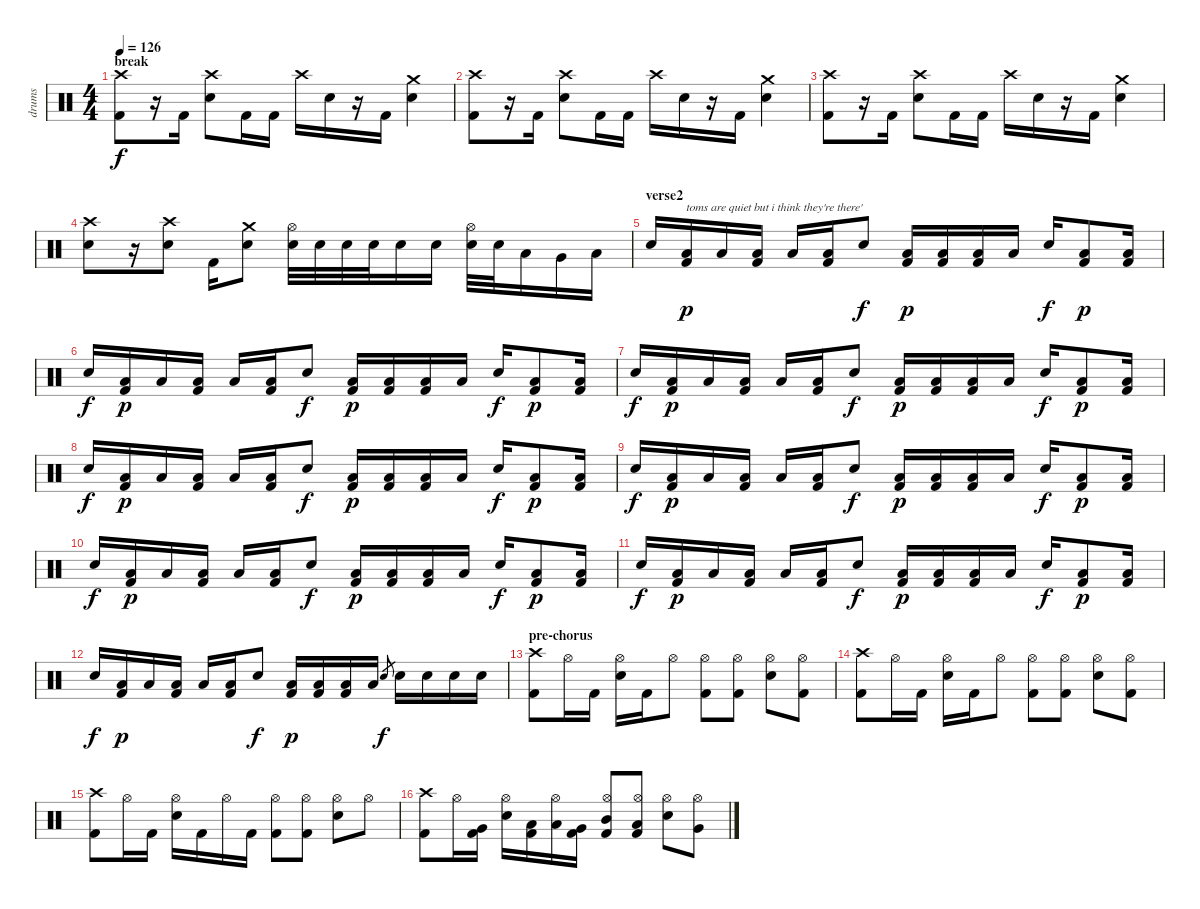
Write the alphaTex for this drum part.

\track ("drums" "drums") {instrument percussion}
\staff {score}
\articulation defaults
\ts (4 4)
\section ("" "break")
\tempo 126
\clef neutral
\ks c
("Crash high (hit)" "Kick (hit) 2").8{dy f} r.16 "Kick (hit) 2".16 ("Crash high (hit)" "Electric Snare (hit)").8 "Kick (hit) 2".16 "Kick (hit) 2".16 "Crash high (hit)".16 "Electric Snare (hit)".16 r.16 "Kick (hit) 2".16 ("Crash medium (hit)" "Electric Snare (hit)").4 |
("Crash high (hit)" "Kick (hit) 2").8 r.16 "Kick (hit) 2".16 ("Crash high (hit)" "Electric Snare (hit)").8 "Kick (hit) 2".16 "Kick (hit) 2".16 "Crash high (hit)".16 "Electric Snare (hit)".16 r.16 "Kick (hit) 2".16 ("Crash medium (hit)" "Electric Snare (hit)").4 |
("Crash high (hit)" "Kick (hit) 2").8 r.16 "Kick (hit) 2".16 ("Crash high (hit)" "Electric Snare (hit)").8 "Kick (hit) 2".16 "Kick (hit) 2".16 "Crash high (hit)".16 "Electric Snare (hit)".16 r.16 "Kick (hit) 2".16 ("Crash medium (hit)" "Electric Snare (hit)").4 |
("Crash high (hit)" "Electric Snare (hit)").8 r.16 ("Crash high (hit)" "Electric Snare (hit)").8 "Kick (hit) 2".16 ("Crash medium (hit)" "Electric Snare (hit)").8 ("Hi-Hat (open)" "Electric Snare (hit)").32 "Electric Snare (hit)".32 "Electric Snare (hit)".32 "Electric Snare (hit)".32 "Electric Snare (hit)".16 "Electric Snare (hit)".16 ("Hi-Hat (open)" "Electric Snare (hit)").32 "Electric Snare (hit)".32 "Low Tom (hit)".16 "Very Low Tom (hit)".16 "Low Floor Tom (hit)".16 |
\section ("" "verse2")
"Electric Snare (hit)".16 ("Low Floor Tom (hit)" "Kick (hit) 2").16{txt "toms are quiet but i think they're there'" dy p} "Low Floor Tom (hit)".16 ("Low Floor Tom (hit)" "Kick (hit) 2").16 "Low Floor Tom (hit)".16 ("Low Floor Tom (hit)" "Kick (hit) 2").16 "Electric Snare (hit)".8{dy f} ("Low Floor Tom (hit)" "Kick (hit) 2").16{dy p} ("Low Floor Tom (hit)" "Kick (hit) 2").16 ("Low Floor Tom (hit)" "Kick (hit) 2").16 "Low Floor Tom (hit)".16 "Electric Snare (hit)".16{dy f} ("Low Floor Tom (hit)" "Kick (hit) 2").8{dy p} ("Low Floor Tom (hit)" "Kick (hit) 2").16 |
"Electric Snare (hit)".16{dy f} ("Low Floor Tom (hit)" "Kick (hit) 2").16{dy p} "Low Floor Tom (hit)".16 ("Low Floor Tom (hit)" "Kick (hit) 2").16 "Low Floor Tom (hit)".16 ("Low Floor Tom (hit)" "Kick (hit) 2").16 "Electric Snare (hit)".8{dy f} ("Low Floor Tom (hit)" "Kick (hit) 2").16{dy p} ("Low Floor Tom (hit)" "Kick (hit) 2").16 ("Low Floor Tom (hit)" "Kick (hit) 2").16 "Low Floor Tom (hit)".16 "Electric Snare (hit)".16{dy f} ("Low Floor Tom (hit)" "Kick (hit) 2").8{dy p} ("Low Floor Tom (hit)" "Kick (hit) 2").16 |
"Electric Snare (hit)".16{dy f} ("Low Floor Tom (hit)" "Kick (hit) 2").16{dy p} "Low Floor Tom (hit)".16 ("Low Floor Tom (hit)" "Kick (hit) 2").16 "Low Floor Tom (hit)".16 ("Low Floor Tom (hit)" "Kick (hit) 2").16 "Electric Snare (hit)".8{dy f} ("Low Floor Tom (hit)" "Kick (hit) 2").16{dy p} ("Low Floor Tom (hit)" "Kick (hit) 2").16 ("Low Floor Tom (hit)" "Kick (hit) 2").16 "Low Floor Tom (hit)".16 "Electric Snare (hit)".16{dy f} ("Low Floor Tom (hit)" "Kick (hit) 2").8{dy p} ("Low Floor Tom (hit)" "Kick (hit) 2").16 |
"Electric Snare (hit)".16{dy f} ("Low Floor Tom (hit)" "Kick (hit) 2").16{dy p} "Low Floor Tom (hit)".16 ("Low Floor Tom (hit)" "Kick (hit) 2").16 "Low Floor Tom (hit)".16 ("Low Floor Tom (hit)" "Kick (hit) 2").16 "Electric Snare (hit)".8{dy f} ("Low Floor Tom (hit)" "Kick (hit) 2").16{dy p} ("Low Floor Tom (hit)" "Kick (hit) 2").16 ("Low Floor Tom (hit)" "Kick (hit) 2").16 "Low Floor Tom (hit)".16 "Electric Snare (hit)".16{dy f} ("Low Floor Tom (hit)" "Kick (hit) 2").8{dy p} ("Low Floor Tom (hit)" "Kick (hit) 2").16 |
"Electric Snare (hit)".16{dy f} ("Low Floor Tom (hit)" "Kick (hit) 2").16{dy p} "Low Floor Tom (hit)".16 ("Low Floor Tom (hit)" "Kick (hit) 2").16 "Low Floor Tom (hit)".16 ("Low Floor Tom (hit)" "Kick (hit) 2").16 "Electric Snare (hit)".8{dy f} ("Low Floor Tom (hit)" "Kick (hit) 2").16{dy p} ("Low Floor Tom (hit)" "Kick (hit) 2").16 ("Low Floor Tom (hit)" "Kick (hit) 2").16 "Low Floor Tom (hit)".16 "Electric Snare (hit)".16{dy f} ("Low Floor Tom (hit)" "Kick (hit) 2").8{dy p} ("Low Floor Tom (hit)" "Kick (hit) 2").16 |
"Electric Snare (hit)".16{dy f} ("Low Floor Tom (hit)" "Kick (hit) 2").16{dy p} "Low Floor Tom (hit)".16 ("Low Floor Tom (hit)" "Kick (hit) 2").16 "Low Floor Tom (hit)".16 ("Low Floor Tom (hit)" "Kick (hit) 2").16 "Electric Snare (hit)".8{dy f} ("Low Floor Tom (hit)" "Kick (hit) 2").16{dy p} ("Low Floor Tom (hit)" "Kick (hit) 2").16 ("Low Floor Tom (hit)" "Kick (hit) 2").16 "Low Floor Tom (hit)".16 "Electric Snare (hit)".16{dy f} ("Low Floor Tom (hit)" "Kick (hit) 2").8{dy p} ("Low Floor Tom (hit)" "Kick (hit) 2").16 |
"Electric Snare (hit)".16{dy f} ("Low Floor Tom (hit)" "Kick (hit) 2").16{dy p} "Low Floor Tom (hit)".16 ("Low Floor Tom (hit)" "Kick (hit) 2").16 "Low Floor Tom (hit)".16 ("Low Floor Tom (hit)" "Kick (hit) 2").16 "Electric Snare (hit)".8{dy f} ("Low Floor Tom (hit)" "Kick (hit) 2").16{dy p} ("Low Floor Tom (hit)" "Kick (hit) 2").16 ("Low Floor Tom (hit)" "Kick (hit) 2").16 "Low Floor Tom (hit)".16 "Electric Snare (hit)".16{dy f} ("Low Floor Tom (hit)" "Kick (hit) 2").8{dy p} ("Low Floor Tom (hit)" "Kick (hit) 2").16 |
"Electric Snare (hit)".16{dy f} ("Low Floor Tom (hit)" "Kick (hit) 2").16{dy p} "Low Floor Tom (hit)".16 ("Low Floor Tom (hit)" "Kick (hit) 2").16 "Low Floor Tom (hit)".16 ("Low Floor Tom (hit)" "Kick (hit) 2").16 "Electric Snare (hit)".8{dy f} ("Low Floor Tom (hit)" "Kick (hit) 2").16{dy p} ("Low Floor Tom (hit)" "Kick (hit) 2").16 ("Low Floor Tom (hit)" "Kick (hit) 2").16 "Low Floor Tom (hit)".16 "Electric Snare (hit)".8{gr dy f} "Electric Snare (hit)".16 "Electric Snare (hit)".16 "Electric Snare (hit)".16 "Electric Snare (hit)".16 |
\section ("" "pre-chorus")
("Crash high (hit)" "Kick (hit) 2").8 "Hi-Hat (open)".16 "Kick (hit) 2".16 ("Hi-Hat (open)" "Electric Snare (hit)").16 "Kick (hit) 2".16 "Hi-Hat (open)".8 ("Hi-Hat (open)" "Kick (hit) 2").8 ("Hi-Hat (open)" "Kick (hit) 2").8 ("Hi-Hat (open)" "Electric Snare (hit)").8 ("Hi-Hat (open)" "Kick (hit) 2").8 |
("Crash high (hit)" "Kick (hit) 2").8 "Hi-Hat (open)".16 "Kick (hit) 2".16 ("Hi-Hat (open)" "Electric Snare (hit)").16 "Kick (hit) 2".16 "Hi-Hat (open)".8 ("Hi-Hat (open)" "Kick (hit) 2").8 ("Hi-Hat (open)" "Kick (hit) 2").8 ("Hi-Hat (open)" "Electric Snare (hit)").8 ("Hi-Hat (open)" "Kick (hit) 2").8 |
("Crash high (hit)" "Kick (hit) 2").8 "Hi-Hat (open)".16 "Kick (hit) 2".16 ("Hi-Hat (open)" "Electric Snare (hit)").16 "Kick (hit) 2".16 "Hi-Hat (open)".16 "Kick (hit) 2".16 ("Hi-Hat (open)" "Kick (hit) 2").8 ("Hi-Hat (open)" "Kick (hit) 2").8 ("Hi-Hat (open)" "Electric Snare (hit)").8 "Hi-Hat (open)".8 |
("Crash high (hit)" "Kick (hit) 2").8 "Hi-Hat (open)".16 ("Very Low Tom (hit)" "Kick (hit) 2").16 ("Hi-Hat (open)" "Electric Snare (hit)").16 ("Low Floor Tom (hit)" "Kick (hit) 2").16 ("Hi-Hat (open)" "Low Tom (hit)").16 ("Very Low Tom (hit)" "Kick (hit) 2").16 ("Hi-Hat (open)" "Mid Tom (hit)" "Kick (hit) 2").8 ("Hi-Hat (open)" "Low Tom (hit)" "Kick (hit) 2").8 ("Hi-Hat (open)" "Electric Snare (hit)").8 ("Hi-Hat (open)" "Very Low Tom (hit)").8
